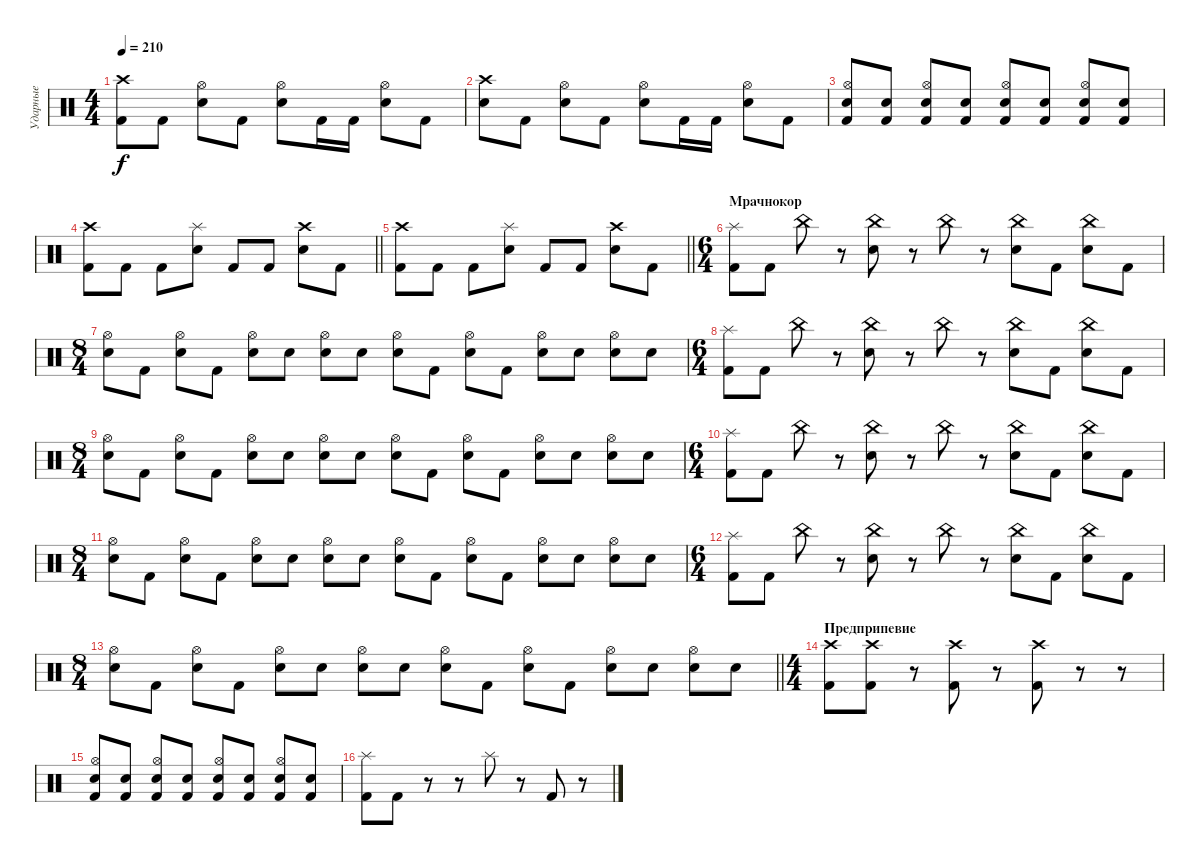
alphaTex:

\track ("Ударные" "Ударные") {instrument percussion}
\staff {score}
\articulation defaults
\ts (4 4)
\tempo 210
\clef neutral
\ks c
("Crash high (hit)" "Kick (hit) 2").8{dy f} "Kick (hit) 2".8 ("Hi-Hat (open)" "Electric Snare (hit)").8 "Kick (hit) 2".8 ("Electric Snare (hit)" "Hi-Hat (open)").8 "Kick (hit) 2".16 "Kick (hit) 2".16 ("Electric Snare (hit)" "Hi-Hat (open)").8 "Kick (hit) 2".8 |
("Crash high (hit)" "Electric Snare (hit)").8 "Kick (hit) 2".8 ("Hi-Hat (open)" "Electric Snare (hit)").8 "Kick (hit) 2".8 ("Electric Snare (hit)" "Hi-Hat (open)").8 "Kick (hit) 2".16 "Kick (hit) 2".16 ("Electric Snare (hit)" "Hi-Hat (open)").8 "Kick (hit) 2".8 |
("Hi-Hat (open)" "Kick (hit) 2" "Electric Snare (hit)").8 ("Kick (hit) 2" "Electric Snare (hit)").8 ("Hi-Hat (open)" "Kick (hit) 2" "Electric Snare (hit)").8 ("Kick (hit) 2" "Electric Snare (hit)").8 ("Hi-Hat (open)" "Kick (hit) 2" "Electric Snare (hit)").8 ("Kick (hit) 2" "Electric Snare (hit)").8 ("Hi-Hat (open)" "Kick (hit) 2" "Electric Snare (hit)").8 ("Kick (hit) 2" "Electric Snare (hit)").8 |
\barLineRight lightlight
("Kick (hit) 2" "Crash high (hit)").8 "Kick (hit) 2".8 "Kick (hit) 2".8 ("Electric Snare (hit)" "Splash (hit)").8 "Kick (hit) 2".8 "Kick (hit) 2".8 ("Electric Snare (hit)" "Crash high (hit)").8 "Kick (hit) 2".8 |
\barLineRight lightlight
("Kick (hit) 2" "Crash high (hit)").8 "Kick (hit) 2".8 "Kick (hit) 2".8 ("Electric Snare (hit)" "Splash (hit)").8 "Kick (hit) 2".8 "Kick (hit) 2".8 ("Electric Snare (hit)" "Crash high (hit)").8 "Kick (hit) 2".8 |
\ts (6 4)
\section ("" "Мрачнокор")
("Kick (hit) 2" "Splash (hit)").8 "Kick (hit) 2".8 "China (hit)".8 r.8 ("Electric Snare (hit)" "China (hit)").8 r.8 "China (hit)".8 r.8 ("Electric Snare (hit)" "China (hit)").8 "Kick (hit) 2".8 ("Electric Snare (hit)" "China (hit)").8 "Kick (hit) 2".8 |
\ts (8 4)
("Electric Snare (hit)" "Hi-Hat (open)").8 "Kick (hit) 2".8 ("Electric Snare (hit)" "Hi-Hat (open)").8 "Kick (hit) 2".8 ("Electric Snare (hit)" "Hi-Hat (open)").8 "Electric Snare (hit)".8 ("Electric Snare (hit)" "Hi-Hat (open)").8 "Electric Snare (hit)".8 ("Electric Snare (hit)" "Hi-Hat (open)").8 "Kick (hit) 2".8 ("Electric Snare (hit)" "Hi-Hat (open)").8 "Kick (hit) 2".8 ("Electric Snare (hit)" "Hi-Hat (open)").8 "Electric Snare (hit)".8 ("Electric Snare (hit)" "Hi-Hat (open)").8 "Electric Snare (hit)".8 |
\ts (6 4)
("Kick (hit) 2" "Splash (hit)").8 "Kick (hit) 2".8 "China (hit)".8 r.8 ("Electric Snare (hit)" "China (hit)").8 r.8 "China (hit)".8 r.8 ("Electric Snare (hit)" "China (hit)").8 "Kick (hit) 2".8 ("Electric Snare (hit)" "China (hit)").8 "Kick (hit) 2".8 |
\ts (8 4)
("Electric Snare (hit)" "Hi-Hat (open)").8 "Kick (hit) 2".8 ("Electric Snare (hit)" "Hi-Hat (open)").8 "Kick (hit) 2".8 ("Electric Snare (hit)" "Hi-Hat (open)").8 "Electric Snare (hit)".8 ("Electric Snare (hit)" "Hi-Hat (open)").8 "Electric Snare (hit)".8 ("Electric Snare (hit)" "Hi-Hat (open)").8 "Kick (hit) 2".8 ("Electric Snare (hit)" "Hi-Hat (open)").8 "Kick (hit) 2".8 ("Electric Snare (hit)" "Hi-Hat (open)").8 "Electric Snare (hit)".8 ("Electric Snare (hit)" "Hi-Hat (open)").8 "Electric Snare (hit)".8 |
\ts (6 4)
("Kick (hit) 2" "Splash (hit)").8 "Kick (hit) 2".8 "China (hit)".8 r.8 ("Electric Snare (hit)" "China (hit)").8 r.8 "China (hit)".8 r.8 ("Electric Snare (hit)" "China (hit)").8 "Kick (hit) 2".8 ("Electric Snare (hit)" "China (hit)").8 "Kick (hit) 2".8 |
\ts (8 4)
("Electric Snare (hit)" "Hi-Hat (open)").8 "Kick (hit) 2".8 ("Electric Snare (hit)" "Hi-Hat (open)").8 "Kick (hit) 2".8 ("Electric Snare (hit)" "Hi-Hat (open)").8 "Electric Snare (hit)".8 ("Electric Snare (hit)" "Hi-Hat (open)").8 "Electric Snare (hit)".8 ("Electric Snare (hit)" "Hi-Hat (open)").8 "Kick (hit) 2".8 ("Electric Snare (hit)" "Hi-Hat (open)").8 "Kick (hit) 2".8 ("Electric Snare (hit)" "Hi-Hat (open)").8 "Electric Snare (hit)".8 ("Electric Snare (hit)" "Hi-Hat (open)").8 "Electric Snare (hit)".8 |
\ts (6 4)
("Kick (hit) 2" "Splash (hit)").8 "Kick (hit) 2".8 "China (hit)".8 r.8 ("Electric Snare (hit)" "China (hit)").8 r.8 "China (hit)".8 r.8 ("Electric Snare (hit)" "China (hit)").8 "Kick (hit) 2".8 ("Electric Snare (hit)" "China (hit)").8 "Kick (hit) 2".8 |
\ts (8 4)
\barLineRight lightlight
("Electric Snare (hit)" "Hi-Hat (open)").8 "Kick (hit) 2".8 ("Electric Snare (hit)" "Hi-Hat (open)").8 "Kick (hit) 2".8 ("Electric Snare (hit)" "Hi-Hat (open)").8 "Electric Snare (hit)".8 ("Electric Snare (hit)" "Hi-Hat (open)").8 "Electric Snare (hit)".8 ("Electric Snare (hit)" "Hi-Hat (open)").8 "Kick (hit) 2".8 ("Electric Snare (hit)" "Hi-Hat (open)").8 "Kick (hit) 2".8 ("Electric Snare (hit)" "Hi-Hat (open)").8 "Electric Snare (hit)".8 ("Electric Snare (hit)" "Hi-Hat (open)").8 "Electric Snare (hit)".8 |
\ts (4 4)
\section ("" "Предприпевие")
("Kick (hit) 2" "Crash high (hit)").8 ("Kick (hit) 2" "Crash high (hit)").8 r.8 ("Kick (hit) 2" "Crash high (hit)").8 r.8 ("Kick (hit) 2" "Crash high (hit)").8 r.8 r.8 |
("Kick (hit) 2" "Electric Snare (hit)" "Hi-Hat (open)").8 ("Kick (hit) 2" "Electric Snare (hit)").8 ("Kick (hit) 2" "Electric Snare (hit)" "Hi-Hat (open)").8 ("Kick (hit) 2" "Electric Snare (hit)").8 ("Kick (hit) 2" "Electric Snare (hit)" "Hi-Hat (open)").8 ("Kick (hit) 2" "Electric Snare (hit)").8 ("Kick (hit) 2" "Electric Snare (hit)" "Hi-Hat (open)").8 ("Kick (hit) 2" "Electric Snare (hit)").8 |
("Kick (hit) 2" "Splash (hit)").8 "Kick (hit) 2".8 r.8 r.8 "Splash (hit)".8 r.8 "Kick (hit) 2".8 r.8
